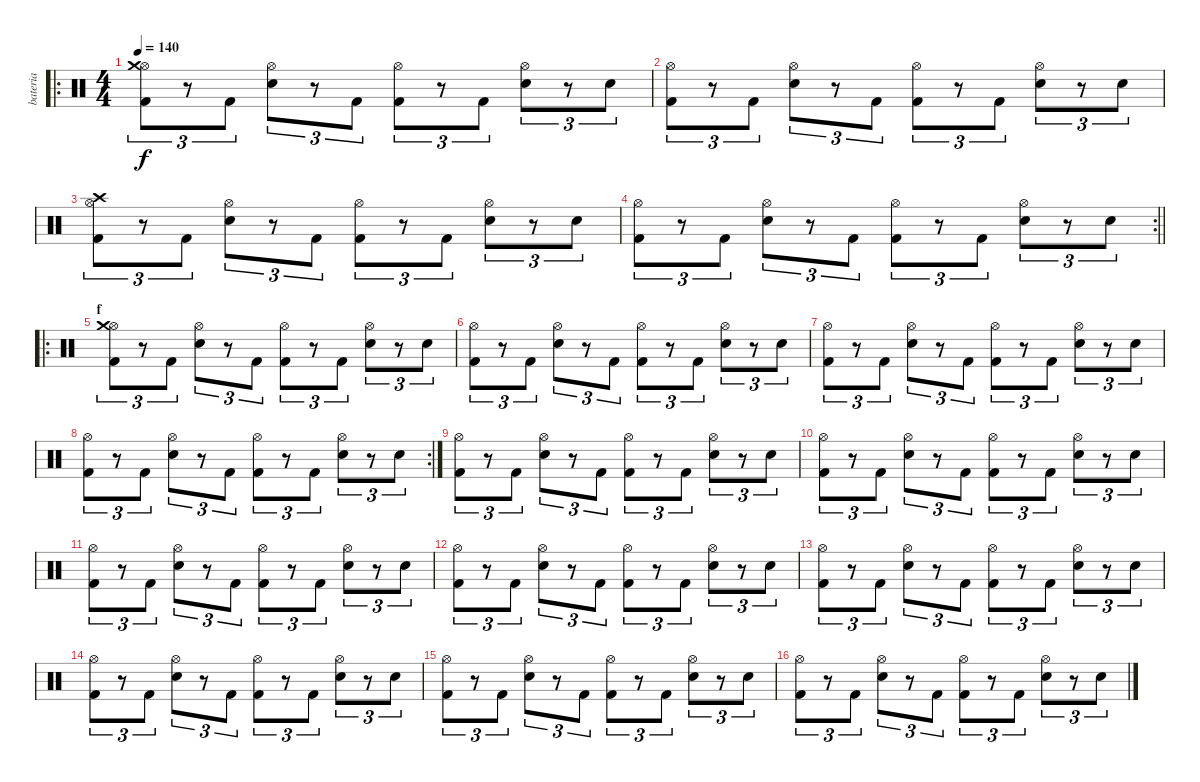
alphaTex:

\track ("bateria" "bateria") {instrument percussion}
\staff {score}
\articulation defaults
\ro
\ts (4 4)
\tempo 140
\clef neutral
\ks c
("Hi-Hat (open)" "Kick (hit) 2" "Crash medium (hit)").8{tu (3 2) dy f} r.8{tu (3 2)} "Kick (hit) 2".8{tu (3 2)} ("Electric Snare (hit)" "Hi-Hat (open)").8{tu (3 2)} r.8{tu (3 2)} "Kick (hit) 2".8{tu (3 2)} ("Kick (hit) 2" "Hi-Hat (open)").8{tu (3 2)} r.8{tu (3 2)} "Kick (hit) 2".8{tu (3 2)} ("Electric Snare (hit)" "Hi-Hat (open)").8{tu (3 2)} r.8{tu (3 2)} "Electric Snare (hit)".8{tu (3 2)} |
("Hi-Hat (open)" "Kick (hit) 2").8{tu (3 2)} r.8{tu (3 2)} "Kick (hit) 2".8{tu (3 2)} ("Electric Snare (hit)" "Hi-Hat (open)").8{tu (3 2)} r.8{tu (3 2)} "Kick (hit) 2".8{tu (3 2)} ("Kick (hit) 2" "Hi-Hat (open)").8{tu (3 2)} r.8{tu (3 2)} "Kick (hit) 2".8{tu (3 2)} ("Electric Snare (hit)" "Hi-Hat (open)").8{tu (3 2)} r.8{tu (3 2)} "Electric Snare (hit)".8{tu (3 2)} |
("Hi-Hat (open)" "Kick (hit) 2" "Crash high (hit)").8{tu (3 2)} r.8{tu (3 2)} "Kick (hit) 2".8{tu (3 2)} ("Electric Snare (hit)" "Hi-Hat (open)").8{tu (3 2)} r.8{tu (3 2)} "Kick (hit) 2".8{tu (3 2)} ("Kick (hit) 2" "Hi-Hat (open)").8{tu (3 2)} r.8{tu (3 2)} "Kick (hit) 2".8{tu (3 2)} ("Electric Snare (hit)" "Hi-Hat (open)").8{tu (3 2)} r.8{tu (3 2)} "Electric Snare (hit)".8{tu (3 2)} |
\rc 2
\barLineRight lightlight
("Hi-Hat (open)" "Kick (hit) 2").8{tu (3 2)} r.8{tu (3 2)} "Kick (hit) 2".8{tu (3 2)} ("Electric Snare (hit)" "Hi-Hat (open)").8{tu (3 2)} r.8{tu (3 2)} "Kick (hit) 2".8{tu (3 2)} ("Kick (hit) 2" "Hi-Hat (open)").8{tu (3 2)} r.8{tu (3 2)} "Kick (hit) 2".8{tu (3 2)} ("Electric Snare (hit)" "Hi-Hat (open)").8{tu (3 2)} r.8{tu (3 2)} "Electric Snare (hit)".8{tu (3 2)} |
\ro
\section ("" "f")
("Hi-Hat (open)" "Kick (hit) 2" "Crash medium (hit)").8{tu (3 2)} r.8{tu (3 2)} "Kick (hit) 2".8{tu (3 2)} ("Electric Snare (hit)" "Hi-Hat (open)").8{tu (3 2)} r.8{tu (3 2)} "Kick (hit) 2".8{tu (3 2)} ("Kick (hit) 2" "Hi-Hat (open)").8{tu (3 2)} r.8{tu (3 2)} "Kick (hit) 2".8{tu (3 2)} ("Electric Snare (hit)" "Hi-Hat (open)").8{tu (3 2)} r.8{tu (3 2)} "Electric Snare (hit)".8{tu (3 2)} |
("Hi-Hat (open)" "Kick (hit) 2").8{tu (3 2)} r.8{tu (3 2)} "Kick (hit) 2".8{tu (3 2)} ("Electric Snare (hit)" "Hi-Hat (open)").8{tu (3 2)} r.8{tu (3 2)} "Kick (hit) 2".8{tu (3 2)} ("Kick (hit) 2" "Hi-Hat (open)").8{tu (3 2)} r.8{tu (3 2)} "Kick (hit) 2".8{tu (3 2)} ("Electric Snare (hit)" "Hi-Hat (open)").8{tu (3 2)} r.8{tu (3 2)} "Electric Snare (hit)".8{tu (3 2)} |
("Hi-Hat (open)" "Kick (hit) 2").8{tu (3 2)} r.8{tu (3 2)} "Kick (hit) 2".8{tu (3 2)} ("Electric Snare (hit)" "Hi-Hat (open)").8{tu (3 2)} r.8{tu (3 2)} "Kick (hit) 2".8{tu (3 2)} ("Kick (hit) 2" "Hi-Hat (open)").8{tu (3 2)} r.8{tu (3 2)} "Kick (hit) 2".8{tu (3 2)} ("Electric Snare (hit)" "Hi-Hat (open)").8{tu (3 2)} r.8{tu (3 2)} "Electric Snare (hit)".8{tu (3 2)} |
\rc 2
("Hi-Hat (open)" "Kick (hit) 2").8{tu (3 2)} r.8{tu (3 2)} "Kick (hit) 2".8{tu (3 2)} ("Electric Snare (hit)" "Hi-Hat (open)").8{tu (3 2)} r.8{tu (3 2)} "Kick (hit) 2".8{tu (3 2)} ("Kick (hit) 2" "Hi-Hat (open)").8{tu (3 2)} r.8{tu (3 2)} "Kick (hit) 2".8{tu (3 2)} ("Electric Snare (hit)" "Hi-Hat (open)").8{tu (3 2)} r.8{tu (3 2)} "Electric Snare (hit)".8{tu (3 2)} |
("Hi-Hat (open)" "Kick (hit) 2").8{tu (3 2)} r.8{tu (3 2)} "Kick (hit) 2".8{tu (3 2)} ("Electric Snare (hit)" "Hi-Hat (open)").8{tu (3 2)} r.8{tu (3 2)} "Kick (hit) 2".8{tu (3 2)} ("Kick (hit) 2" "Hi-Hat (open)").8{tu (3 2)} r.8{tu (3 2)} "Kick (hit) 2".8{tu (3 2)} ("Electric Snare (hit)" "Hi-Hat (open)").8{tu (3 2)} r.8{tu (3 2)} "Electric Snare (hit)".8{tu (3 2)} |
("Hi-Hat (open)" "Kick (hit) 2").8{tu (3 2)} r.8{tu (3 2)} "Kick (hit) 2".8{tu (3 2)} ("Electric Snare (hit)" "Hi-Hat (open)").8{tu (3 2)} r.8{tu (3 2)} "Kick (hit) 2".8{tu (3 2)} ("Kick (hit) 2" "Hi-Hat (open)").8{tu (3 2)} r.8{tu (3 2)} "Kick (hit) 2".8{tu (3 2)} ("Electric Snare (hit)" "Hi-Hat (open)").8{tu (3 2)} r.8{tu (3 2)} "Electric Snare (hit)".8{tu (3 2)} |
("Hi-Hat (open)" "Kick (hit) 2").8{tu (3 2)} r.8{tu (3 2)} "Kick (hit) 2".8{tu (3 2)} ("Electric Snare (hit)" "Hi-Hat (open)").8{tu (3 2)} r.8{tu (3 2)} "Kick (hit) 2".8{tu (3 2)} ("Kick (hit) 2" "Hi-Hat (open)").8{tu (3 2)} r.8{tu (3 2)} "Kick (hit) 2".8{tu (3 2)} ("Electric Snare (hit)" "Hi-Hat (open)").8{tu (3 2)} r.8{tu (3 2)} "Electric Snare (hit)".8{tu (3 2)} |
("Hi-Hat (open)" "Kick (hit) 2").8{tu (3 2)} r.8{tu (3 2)} "Kick (hit) 2".8{tu (3 2)} ("Electric Snare (hit)" "Hi-Hat (open)").8{tu (3 2)} r.8{tu (3 2)} "Kick (hit) 2".8{tu (3 2)} ("Kick (hit) 2" "Hi-Hat (open)").8{tu (3 2)} r.8{tu (3 2)} "Kick (hit) 2".8{tu (3 2)} ("Electric Snare (hit)" "Hi-Hat (open)").8{tu (3 2)} r.8{tu (3 2)} "Electric Snare (hit)".8{tu (3 2)} |
("Hi-Hat (open)" "Kick (hit) 2").8{tu (3 2)} r.8{tu (3 2)} "Kick (hit) 2".8{tu (3 2)} ("Electric Snare (hit)" "Hi-Hat (open)").8{tu (3 2)} r.8{tu (3 2)} "Kick (hit) 2".8{tu (3 2)} ("Kick (hit) 2" "Hi-Hat (open)").8{tu (3 2)} r.8{tu (3 2)} "Kick (hit) 2".8{tu (3 2)} ("Electric Snare (hit)" "Hi-Hat (open)").8{tu (3 2)} r.8{tu (3 2)} "Electric Snare (hit)".8{tu (3 2)} |
("Hi-Hat (open)" "Kick (hit) 2").8{tu (3 2)} r.8{tu (3 2)} "Kick (hit) 2".8{tu (3 2)} ("Electric Snare (hit)" "Hi-Hat (open)").8{tu (3 2)} r.8{tu (3 2)} "Kick (hit) 2".8{tu (3 2)} ("Kick (hit) 2" "Hi-Hat (open)").8{tu (3 2)} r.8{tu (3 2)} "Kick (hit) 2".8{tu (3 2)} ("Electric Snare (hit)" "Hi-Hat (open)").8{tu (3 2)} r.8{tu (3 2)} "Electric Snare (hit)".8{tu (3 2)} |
("Hi-Hat (open)" "Kick (hit) 2").8{tu (3 2)} r.8{tu (3 2)} "Kick (hit) 2".8{tu (3 2)} ("Electric Snare (hit)" "Hi-Hat (open)").8{tu (3 2)} r.8{tu (3 2)} "Kick (hit) 2".8{tu (3 2)} ("Kick (hit) 2" "Hi-Hat (open)").8{tu (3 2)} r.8{tu (3 2)} "Kick (hit) 2".8{tu (3 2)} ("Electric Snare (hit)" "Hi-Hat (open)").8{tu (3 2)} r.8{tu (3 2)} "Electric Snare (hit)".8{tu (3 2)} |
("Hi-Hat (open)" "Kick (hit) 2").8{tu (3 2)} r.8{tu (3 2)} "Kick (hit) 2".8{tu (3 2)} ("Electric Snare (hit)" "Hi-Hat (open)").8{tu (3 2)} r.8{tu (3 2)} "Kick (hit) 2".8{tu (3 2)} ("Kick (hit) 2" "Hi-Hat (open)").8{tu (3 2)} r.8{tu (3 2)} "Kick (hit) 2".8{tu (3 2)} ("Electric Snare (hit)" "Hi-Hat (open)").8{tu (3 2)} r.8{tu (3 2)} "Electric Snare (hit)".8{tu (3 2)}
